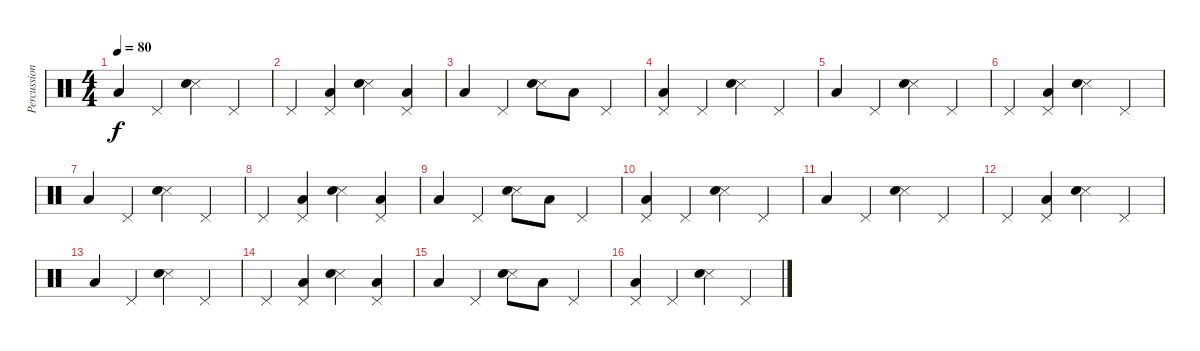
\track ("Percussions" "Percussion") {instrument percussion}
\staff {score}
\articulation defaults
\ts (4 4)
\tempo 80
\clef neutral
\ks c "Low Floor Tom (hit)".4{dy f} "Pedal Hi-Hat (hit)".4
("Snare (side stick) 3" "Electric Snare (hit)").4 "Pedal Hi-Hat (hit)".4 |
"Pedal Hi-Hat (hit)".4 ("Pedal Hi-Hat (hit)" "Low Floor Tom (hit)").4 ("Snare (side stick) 3" "Electric Snare (hit)").4 ("Pedal Hi-Hat (hit)" "Low Floor Tom (hit)").4 |
"Low Floor Tom (hit)".4 "Pedal Hi-Hat (hit)".4 ("Snare (side stick) 3" "Electric Snare (hit)").8 "Low Floor Tom (hit)".8 "Pedal Hi-Hat (hit)".4 |
("Pedal Hi-Hat (hit)" "Low Floor Tom (hit)").4 "Pedal Hi-Hat (hit)".4 ("Snare (side stick) 3" "Electric Snare (hit)").4 "Pedal Hi-Hat (hit)".4 |
"Low Floor Tom (hit)".4 "Pedal Hi-Hat (hit)".4 ("Snare (side stick) 3" "Electric Snare (hit)").4 "Pedal Hi-Hat (hit)".4 |
"Pedal Hi-Hat (hit)".4 ("Pedal Hi-Hat (hit)" "Low Floor Tom (hit)").4 ("Snare (side stick) 3" "Electric Snare (hit)").4 "Pedal Hi-Hat (hit)".4 |
"Low Floor Tom (hit)".4 "Pedal Hi-Hat (hit)".4 ("Snare (side stick) 3" "Electric Snare (hit)").4 "Pedal Hi-Hat (hit)".4 |
"Pedal Hi-Hat (hit)".4 ("Pedal Hi-Hat (hit)" "Low Floor Tom (hit)").4 ("Snare (side stick) 3" "Electric Snare (hit)").4 ("Pedal Hi-Hat (hit)" "Low Floor Tom (hit)").4 |
"Low Floor Tom (hit)".4 "Pedal Hi-Hat (hit)".4 ("Snare (side stick) 3" "Electric Snare (hit)").8 "Low Floor Tom (hit)".8 "Pedal Hi-Hat (hit)".4 |
("Pedal Hi-Hat (hit)" "Low Floor Tom (hit)").4 "Pedal Hi-Hat (hit)".4 ("Snare (side stick) 3" "Electric Snare (hit)").4 "Pedal Hi-Hat (hit)".4 |
"Low Floor Tom (hit)".4 "Pedal Hi-Hat (hit)".4 ("Snare (side stick) 3" "Electric Snare (hit)").4 "Pedal Hi-Hat (hit)".4 |
"Pedal Hi-Hat (hit)".4 ("Pedal Hi-Hat (hit)" "Low Floor Tom (hit)").4 ("Snare (side stick) 3" "Electric Snare (hit)").4 "Pedal Hi-Hat (hit)".4 |
"Low Floor Tom (hit)".4 "Pedal Hi-Hat (hit)".4 ("Snare (side stick) 3" "Electric Snare (hit)").4 "Pedal Hi-Hat (hit)".4 |
"Pedal Hi-Hat (hit)".4 ("Pedal Hi-Hat (hit)" "Low Floor Tom (hit)").4 ("Snare (side stick) 3" "Electric Snare (hit)").4 ("Pedal Hi-Hat (hit)" "Low Floor Tom (hit)").4 |
"Low Floor Tom (hit)".4 "Pedal Hi-Hat (hit)".4 ("Snare (side stick) 3" "Electric Snare (hit)").8 "Low Floor Tom (hit)".8 "Pedal Hi-Hat (hit)".4 |
("Pedal Hi-Hat (hit)" "Low Floor Tom (hit)").4 "Pedal Hi-Hat (hit)".4 ("Snare (side stick) 3" "Electric Snare (hit)").4 "Pedal Hi-Hat (hit)".4
